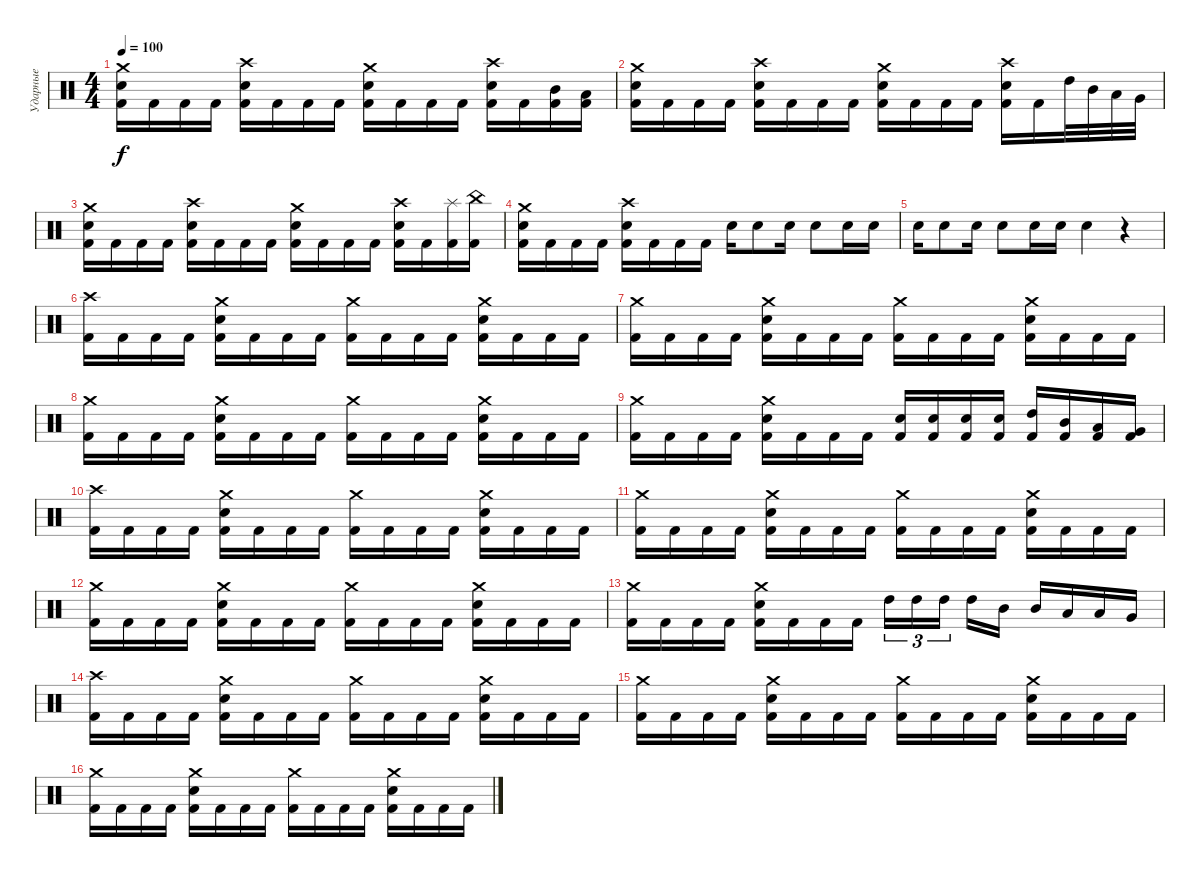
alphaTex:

\track ("Ударные" "Ударные") {instrument percussion}
\staff {score}
\articulation defaults
\ts (4 4)
\tempo 100
\clef neutral
\ks c
("Crash medium (hit)" "Electric Snare (hit)" "Kick (hit) 2").16{dy f} "Kick (hit) 2".16 "Kick (hit) 2".16 "Kick (hit) 2".16 ("Crash high (hit)" "Electric Snare (hit)" "Kick (hit) 2").16 "Kick (hit) 2".16 "Kick (hit) 2".16 "Kick (hit) 2".16 ("Crash medium (hit)" "Electric Snare (hit)" "Kick (hit) 2").16 "Kick (hit) 2".16 "Kick (hit) 2".16 "Kick (hit) 2".16 ("Crash high (hit)" "Electric Snare (hit)" "Kick (hit) 2").16 "Kick (hit) 2".16 ("Mid Tom (hit)" "Kick (hit) 2").16 ("Low Tom (hit)" "Kick (hit) 2").16 |
("Crash medium (hit)" "Electric Snare (hit)" "Kick (hit) 2").16 "Kick (hit) 2".16 "Kick (hit) 2".16 "Kick (hit) 2".16 ("Crash high (hit)" "Electric Snare (hit)" "Kick (hit) 2").16 "Kick (hit) 2".16 "Kick (hit) 2".16 "Kick (hit) 2".16 ("Crash medium (hit)" "Electric Snare (hit)" "Kick (hit) 2").16 "Kick (hit) 2".16 "Kick (hit) 2".16 "Kick (hit) 2".16 ("Crash high (hit)" "Electric Snare (hit)" "Kick (hit) 2").16 "Kick (hit) 2".16 "High Tom (hit)".32 "Mid Tom (hit)".32 "Low Tom (hit)".32 "Very Low Tom (hit)".32 |
("Crash medium (hit)" "Electric Snare (hit)" "Kick (hit) 2").16 "Kick (hit) 2".16 "Kick (hit) 2".16 "Kick (hit) 2".16 ("Crash high (hit)" "Electric Snare (hit)" "Kick (hit) 2").16 "Kick (hit) 2".16 "Kick (hit) 2".16 "Kick (hit) 2".16 ("Crash medium (hit)" "Electric Snare (hit)" "Kick (hit) 2").16 "Kick (hit) 2".16 "Kick (hit) 2".16 "Kick (hit) 2".16 ("Crash high (hit)" "Electric Snare (hit)" "Kick (hit) 2").16 "Kick (hit) 2".16 ("Splash (hit)" "Kick (hit) 2").16 ("China (hit)" "Kick (hit) 2").16 |
("Crash medium (hit)" "Electric Snare (hit)" "Kick (hit) 2").16 "Kick (hit) 2".16 "Kick (hit) 2".16 "Kick (hit) 2".16 ("Crash high (hit)" "Electric Snare (hit)" "Kick (hit) 2").16 "Kick (hit) 2".16 "Kick (hit) 2".16 "Kick (hit) 2".16 "Electric Snare (hit)".16 "Electric Snare (hit)".8 "Electric Snare (hit)".16 "Electric Snare (hit)".8 "Electric Snare (hit)".16 "Electric Snare (hit)".16 |
"Electric Snare (hit)".16 "Electric Snare (hit)".8 "Electric Snare (hit)".16 "Electric Snare (hit)".8 "Electric Snare (hit)".16 "Electric Snare (hit)".16 "Electric Snare (hit)".4 r.4 |
("Crash high (hit)" "Kick (hit) 2").16 "Kick (hit) 2".16 "Kick (hit) 2".16 "Kick (hit) 2".16 ("Crash medium (hit)" "Electric Snare (hit)" "Kick (hit) 2").16 "Kick (hit) 2".16 "Kick (hit) 2".16 "Kick (hit) 2".16 ("Crash medium (hit)" "Kick (hit) 2").16 "Kick (hit) 2".16 "Kick (hit) 2".16 "Kick (hit) 2".16 ("Crash medium (hit)" "Electric Snare (hit)" "Kick (hit) 2").16 "Kick (hit) 2".16 "Kick (hit) 2".16 "Kick (hit) 2".16 |
("Crash medium (hit)" "Kick (hit) 2").16 "Kick (hit) 2".16 "Kick (hit) 2".16 "Kick (hit) 2".16 ("Crash medium (hit)" "Electric Snare (hit)" "Kick (hit) 2").16 "Kick (hit) 2".16 "Kick (hit) 2".16 "Kick (hit) 2".16 ("Crash medium (hit)" "Kick (hit) 2").16 "Kick (hit) 2".16 "Kick (hit) 2".16 "Kick (hit) 2".16 ("Crash medium (hit)" "Electric Snare (hit)" "Kick (hit) 2").16 "Kick (hit) 2".16 "Kick (hit) 2".16 "Kick (hit) 2".16 |
("Crash medium (hit)" "Kick (hit) 2").16 "Kick (hit) 2".16 "Kick (hit) 2".16 "Kick (hit) 2".16 ("Crash medium (hit)" "Electric Snare (hit)" "Kick (hit) 2").16 "Kick (hit) 2".16 "Kick (hit) 2".16 "Kick (hit) 2".16 ("Crash medium (hit)" "Kick (hit) 2").16 "Kick (hit) 2".16 "Kick (hit) 2".16 "Kick (hit) 2".16 ("Crash medium (hit)" "Electric Snare (hit)" "Kick (hit) 2").16 "Kick (hit) 2".16 "Kick (hit) 2".16 "Kick (hit) 2".16 |
("Crash medium (hit)" "Kick (hit) 2").16 "Kick (hit) 2".16 "Kick (hit) 2".16 "Kick (hit) 2".16 ("Crash medium (hit)" "Electric Snare (hit)" "Kick (hit) 2").16 "Kick (hit) 2".16 "Kick (hit) 2".16 "Kick (hit) 2".16 ("Electric Snare (hit)" "Kick (hit) 2").16 ("Electric Snare (hit)" "Kick (hit) 2").16 ("Electric Snare (hit)" "Kick (hit) 2").16 ("Electric Snare (hit)" "Kick (hit) 2").16 ("High Tom (hit)" "Kick (hit) 2").16 ("Mid Tom (hit)" "Kick (hit) 2").16 ("Low Tom (hit)" "Kick (hit) 2").16 ("Very Low Tom (hit)" "Kick (hit) 2").16 |
("Crash high (hit)" "Kick (hit) 2").16 "Kick (hit) 2".16 "Kick (hit) 2".16 "Kick (hit) 2".16 ("Crash medium (hit)" "Electric Snare (hit)" "Kick (hit) 2").16 "Kick (hit) 2".16 "Kick (hit) 2".16 "Kick (hit) 2".16 ("Crash medium (hit)" "Kick (hit) 2").16 "Kick (hit) 2".16 "Kick (hit) 2".16 "Kick (hit) 2".16 ("Crash medium (hit)" "Electric Snare (hit)" "Kick (hit) 2").16 "Kick (hit) 2".16 "Kick (hit) 2".16 "Kick (hit) 2".16 |
("Crash medium (hit)" "Kick (hit) 2").16 "Kick (hit) 2".16 "Kick (hit) 2".16 "Kick (hit) 2".16 ("Crash medium (hit)" "Electric Snare (hit)" "Kick (hit) 2").16 "Kick (hit) 2".16 "Kick (hit) 2".16 "Kick (hit) 2".16 ("Crash medium (hit)" "Kick (hit) 2").16 "Kick (hit) 2".16 "Kick (hit) 2".16 "Kick (hit) 2".16 ("Crash medium (hit)" "Electric Snare (hit)" "Kick (hit) 2").16 "Kick (hit) 2".16 "Kick (hit) 2".16 "Kick (hit) 2".16 |
("Crash medium (hit)" "Kick (hit) 2").16 "Kick (hit) 2".16 "Kick (hit) 2".16 "Kick (hit) 2".16 ("Crash medium (hit)" "Electric Snare (hit)" "Kick (hit) 2").16 "Kick (hit) 2".16 "Kick (hit) 2".16 "Kick (hit) 2".16 ("Crash medium (hit)" "Kick (hit) 2").16 "Kick (hit) 2".16 "Kick (hit) 2".16 "Kick (hit) 2".16 ("Crash medium (hit)" "Electric Snare (hit)" "Kick (hit) 2").16 "Kick (hit) 2".16 "Kick (hit) 2".16 "Kick (hit) 2".16 |
("Crash medium (hit)" "Kick (hit) 2").16 "Kick (hit) 2".16 "Kick (hit) 2".16 "Kick (hit) 2".16 ("Crash medium (hit)" "Electric Snare (hit)" "Kick (hit) 2").16 "Kick (hit) 2".16 "Kick (hit) 2".16 "Kick (hit) 2".16 "High Tom (hit)".16{tu (3 2)} "High Tom (hit)".16{tu (3 2)} "High Tom (hit)".16{tu (3 2) beam splitsecondary} "High Tom (hit)".16 "Mid Tom (hit)".16 "Mid Tom (hit)".16 "Low Tom (hit)".16 "Low Tom (hit)".16 "Very Low Tom (hit)".16 |
("Crash high (hit)" "Kick (hit) 2").16 "Kick (hit) 2".16 "Kick (hit) 2".16 "Kick (hit) 2".16 ("Crash medium (hit)" "Electric Snare (hit)" "Kick (hit) 2").16 "Kick (hit) 2".16 "Kick (hit) 2".16 "Kick (hit) 2".16 ("Crash medium (hit)" "Kick (hit) 2").16 "Kick (hit) 2".16 "Kick (hit) 2".16 "Kick (hit) 2".16 ("Crash medium (hit)" "Electric Snare (hit)" "Kick (hit) 2").16 "Kick (hit) 2".16 "Kick (hit) 2".16 "Kick (hit) 2".16 |
("Crash medium (hit)" "Kick (hit) 2").16 "Kick (hit) 2".16 "Kick (hit) 2".16 "Kick (hit) 2".16 ("Crash medium (hit)" "Electric Snare (hit)" "Kick (hit) 2").16 "Kick (hit) 2".16 "Kick (hit) 2".16 "Kick (hit) 2".16 ("Crash medium (hit)" "Kick (hit) 2").16 "Kick (hit) 2".16 "Kick (hit) 2".16 "Kick (hit) 2".16 ("Crash medium (hit)" "Electric Snare (hit)" "Kick (hit) 2").16 "Kick (hit) 2".16 "Kick (hit) 2".16 "Kick (hit) 2".16 |
("Crash medium (hit)" "Kick (hit) 2").16 "Kick (hit) 2".16 "Kick (hit) 2".16 "Kick (hit) 2".16 ("Crash medium (hit)" "Electric Snare (hit)" "Kick (hit) 2").16 "Kick (hit) 2".16 "Kick (hit) 2".16 "Kick (hit) 2".16 ("Crash medium (hit)" "Kick (hit) 2").16 "Kick (hit) 2".16 "Kick (hit) 2".16 "Kick (hit) 2".16 ("Crash medium (hit)" "Electric Snare (hit)" "Kick (hit) 2").16 "Kick (hit) 2".16 "Kick (hit) 2".16 "Kick (hit) 2".16
